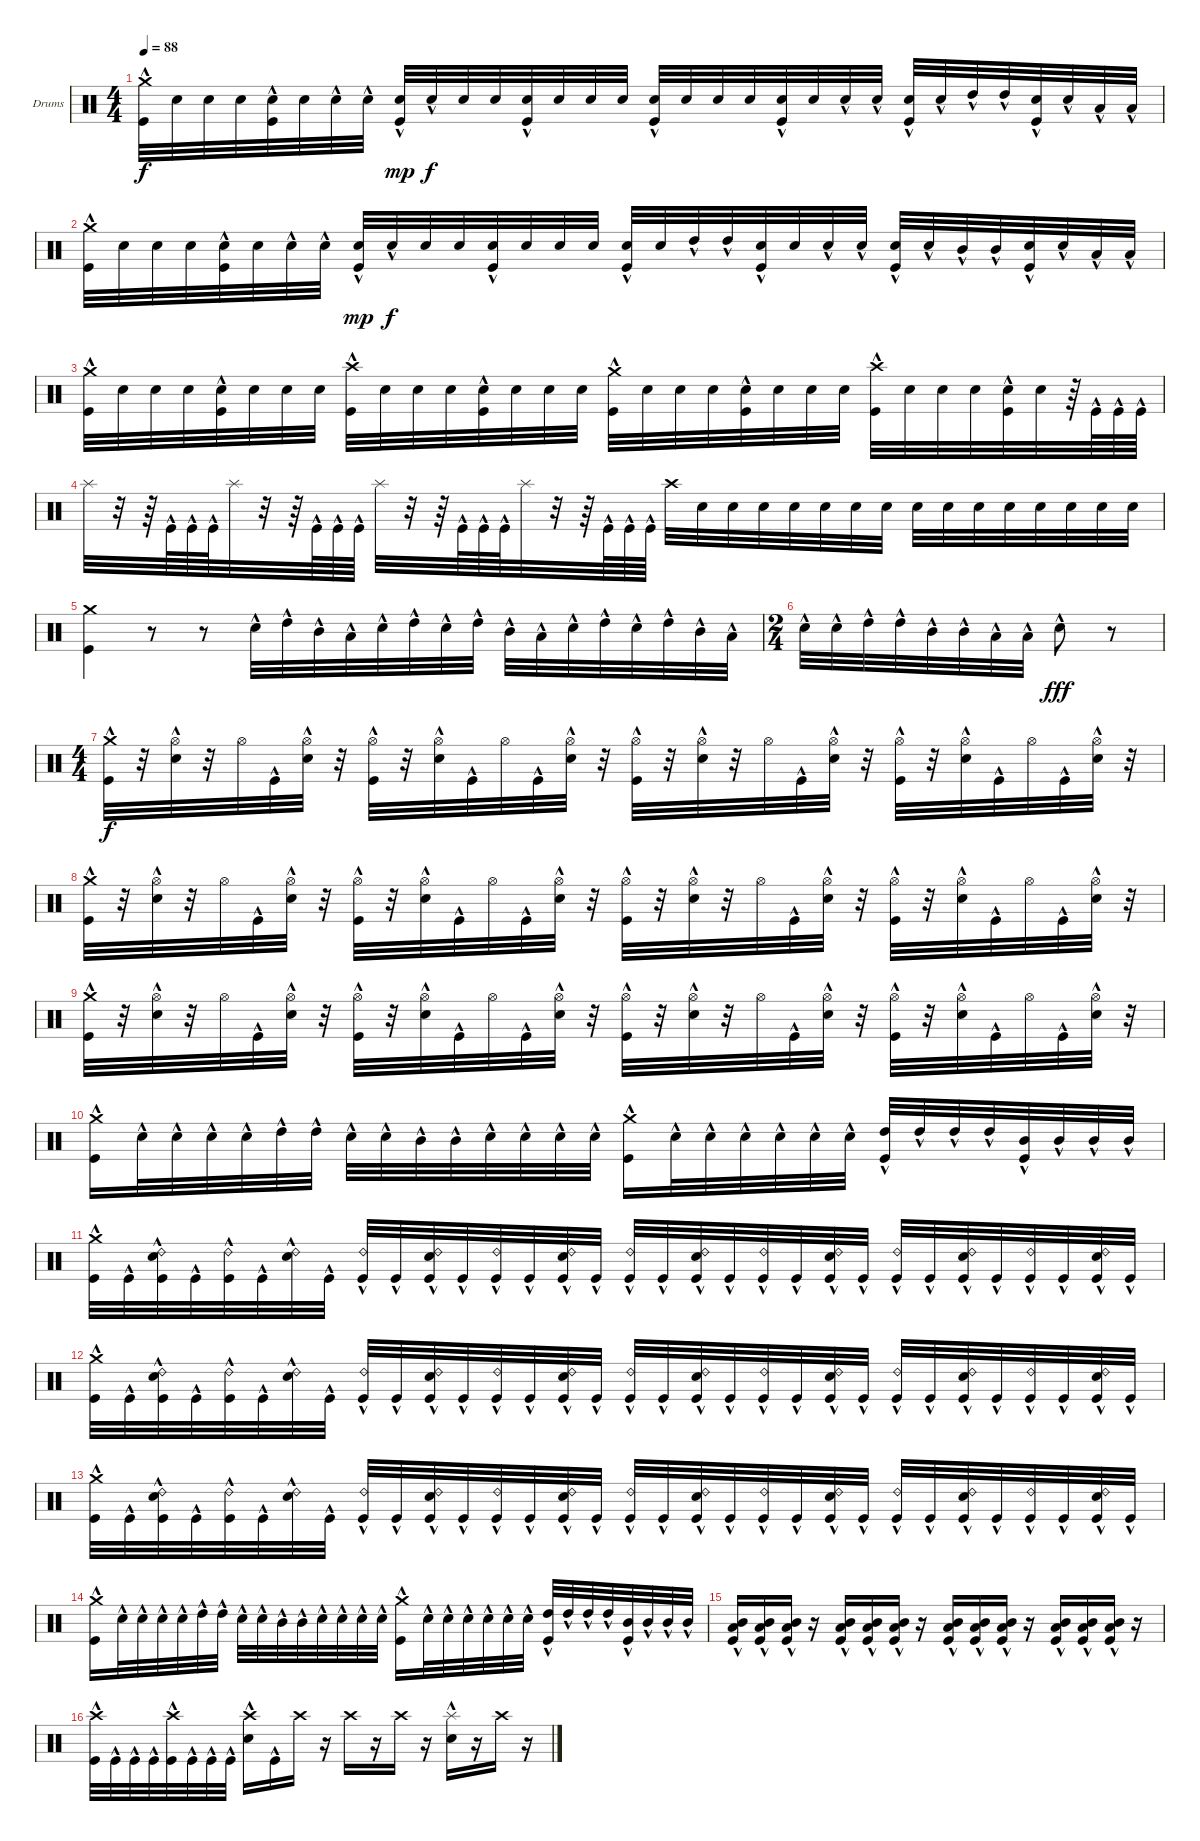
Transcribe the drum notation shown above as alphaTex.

\bracketExtendMode groupsimilarinstruments
\firstSystemTrackNameOrientation horizontal
\otherSystemsTrackNameOrientation horizontal
\track ("Drumkit" "Drums") {instrument percussion}
\staff {score}
\articulation defaults
\ts (4 4)
\tempo 88
\clef neutral
\ks c
("Kick (hit)"{hac} "Crash medium (hit)").32{dy f} "Snare (hit) 2".32 "Snare (hit) 2".32 "Snare (hit) 2".32 ("Kick (hit)"{hac} "Snare (hit) 2").32 "Snare (hit) 2".32 "Snare (hit) 2"{hac}.32 "Snare (hit) 2"{hac}.32 ("Kick (hit)"{hac} "Snare (hit) 2"{hac}).32{dy mp} "Snare (hit) 2"{hac}.32{dy f} "Snare (hit) 2".32 "Snare (hit) 2".32 ("Kick (hit)"{hac} "Snare (hit) 2").32 "Snare (hit) 2".32 "Snare (hit) 2".32 "Snare (hit) 2".32 ("Kick (hit)"{hac} "Snare (hit) 2").32 "Snare (hit) 2".32 "Snare (hit) 2".32 "Snare (hit) 2".32 ("Kick (hit)"{hac} "Snare (hit) 2").32 "Snare (hit) 2".32 "Snare (hit) 2"{hac}.32 "Snare (hit) 2"{hac}.32 ("Kick (hit)"{hac} "Snare (hit) 2"{hac}).32 "Snare (hit) 2"{hac}.32 "High Tom (hit)"{hac}.32 "High Tom (hit)"{hac}.32 ("Kick (hit)"{hac} "Snare (hit) 2"{hac}).32 "Snare (hit) 2"{hac}.32 "Low Tom (hit)"{hac}.32 "Low Tom (hit)"{hac}.32 |
("Kick (hit)"{hac} "Crash medium (hit)").32 "Snare (hit) 2".32 "Snare (hit) 2".32 "Snare (hit) 2".32 ("Kick (hit)"{hac} "Snare (hit) 2").32 "Snare (hit) 2".32 "Snare (hit) 2"{hac}.32 "Snare (hit) 2"{hac}.32 ("Kick (hit)"{hac} "Snare (hit) 2"{hac}).32{dy mp} "Snare (hit) 2"{hac}.32{dy f} "Snare (hit) 2".32 "Snare (hit) 2".32 ("Kick (hit)"{hac} "Snare (hit) 2").32 "Snare (hit) 2".32 "Snare (hit) 2".32 "Snare (hit) 2".32 ("Kick (hit)"{hac} "Snare (hit) 2").32 "Snare (hit) 2".32 "High Tom (hit)"{hac}.32 "High Tom (hit)"{hac}.32 ("Kick (hit)"{hac} "Snare (hit) 2").32 "Snare (hit) 2".32 "Snare (hit) 2"{hac}.32 "Snare (hit) 2"{hac}.32 ("Kick (hit)"{hac} "Snare (hit) 2"{hac}).32 "Snare (hit) 2"{hac}.32 "Mid Tom (hit)"{hac}.32 "Mid Tom (hit)"{hac}.32 ("Kick (hit)"{hac} "Snare (hit) 2"{hac}).32 "Snare (hit) 2"{hac}.32 "Low Tom (hit)"{hac}.32 "Low Tom (hit)"{hac}.32 |
("Kick (hit)"{hac} "Crash medium (hit)").32 "Snare (hit) 2".32 "Snare (hit) 2".32 "Snare (hit) 2".32 ("Kick (hit)"{hac} "Snare (hit) 2").32 "Snare (hit) 2".32 "Snare (hit) 2".32 "Snare (hit) 2".32 ("Kick (hit)"{hac} "Crash high (hit)").32 "Snare (hit) 2".32 "Snare (hit) 2".32 "Snare (hit) 2".32 ("Kick (hit)"{hac} "Snare (hit) 2").32 "Snare (hit) 2".32 "Snare (hit) 2".32 "Snare (hit) 2".32 ("Kick (hit)"{hac} "Crash medium (hit)").32 "Snare (hit) 2".32 "Snare (hit) 2".32 "Snare (hit) 2".32 ("Kick (hit)"{hac} "Snare (hit) 2").32 "Snare (hit) 2".32 "Snare (hit) 2".32 "Snare (hit) 2".32 ("Kick (hit)"{hac} "Crash high (hit)").32 "Snare (hit) 2".32 "Snare (hit) 2".32 "Snare (hit) 2".32 ("Kick (hit)"{hac} "Snare (hit) 2").32 "Snare (hit) 2".32 r.64 "Kick (hit)"{hac}.64 "Kick (hit)"{hac}.64 "Kick (hit)"{hac}.64 |
"Splash (hit)".32 r.32 r.64 "Kick (hit)"{hac}.64 "Kick (hit)"{hac}.64 "Kick (hit)"{hac}.64 "Splash (hit)".32 r.32 r.64 "Kick (hit)"{hac}.64 "Kick (hit)"{hac}.64 "Kick (hit)"{hac}.64 "Splash (hit)".32 r.32 r.64 "Kick (hit)"{hac}.64 "Kick (hit)"{hac}.64 "Kick (hit)"{hac}.64 "Splash (hit)".32 r.32 r.64 "Kick (hit)"{hac}.64 "Kick (hit)"{hac}.64 "Kick (hit)"{hac}.64 "Crash high (hit)".32 "Snare (hit) 2".32 "Snare (hit) 2".32 "Snare (hit) 2".32 "Snare (hit) 2".32 "Snare (hit) 2".32 "Snare (hit) 2".32 "Snare (hit) 2".32 "Snare (hit) 2".32 "Snare (hit) 2".32 "Snare (hit) 2".32 "Snare (hit) 2".32 "Snare (hit) 2".32 "Snare (hit) 2".32 "Snare (hit) 2".32 "Snare (hit) 2".32 |
("Kick (hit)" "Crash medium (hit)").4 r.8 r.8 "Snare (hit) 2"{hac}.32 "High Tom (hit)"{hac}.32 "Mid Tom (hit)"{hac}.32 "Low Tom (hit)"{hac}.32 "Snare (hit) 2"{hac}.32 "High Tom (hit)"{hac}.32 "Snare (hit) 2"{hac}.32 "High Tom (hit)"{hac}.32 "Mid Tom (hit)"{hac}.32 "Low Tom (hit)"{hac}.32 "Snare (hit) 2"{hac}.32 "High Tom (hit)"{hac}.32 "Snare (hit) 2"{hac}.32 "High Tom (hit)"{hac}.32 "Mid Tom (hit)"{hac}.32 "Low Tom (hit)"{hac}.32 |
\ts (2 4)
\beaming (8 2 2)
"Snare (hit) 2"{hac}.32 "Snare (hit) 2"{hac}.32 "High Tom (hit)"{hac}.32 "High Tom (hit)"{hac}.32 "Mid Tom (hit)"{hac}.32 "Mid Tom (hit)"{hac}.32 "Low Tom (hit)"{hac}.32 "Low Tom (hit)"{hac}.32 "Snare (hit) 2"{hac}.8{dy fff} r.8 |
\ts (4 4)
\beaming (8 2 2 2 2)
("Kick (hit)"{hac} "Crash medium (hit)").32{dy f} r.32 ("Snare (hit) 2"{hac} "Hi-Hat (open)").32 r.32 "Hi-Hat (open)".32 "Kick (hit)"{hac}.32 ("Snare (hit) 2"{hac} "Hi-Hat (open)").32 r.32 ("Kick (hit)"{hac} "Hi-Hat (open)").32 r.32 ("Snare (hit) 2"{hac} "Hi-Hat (open)").32 "Kick (hit)"{hac}.32 "Hi-Hat (open)".32 "Kick (hit)"{hac}.32 ("Snare (hit) 2"{hac} "Hi-Hat (open)").32 r.32 ("Kick (hit)"{hac} "Hi-Hat (open)").32 r.32 ("Snare (hit) 2"{hac} "Hi-Hat (open)").32 r.32 "Hi-Hat (open)".32 "Kick (hit)"{hac}.32 ("Snare (hit) 2"{hac} "Hi-Hat (open)").32 r.32 ("Kick (hit)"{hac} "Hi-Hat (open)").32 r.32 ("Snare (hit) 2"{hac} "Hi-Hat (open)").32 "Kick (hit)"{hac}.32 "Hi-Hat (open)".32 "Kick (hit)"{hac}.32 ("Snare (hit) 2"{hac} "Hi-Hat (open)").32 r.32 |
("Kick (hit)"{hac} "Crash medium (hit)").32 r.32 ("Snare (hit) 2"{hac} "Hi-Hat (open)").32 r.32 "Hi-Hat (open)".32 "Kick (hit)"{hac}.32 ("Snare (hit) 2"{hac} "Hi-Hat (open)").32 r.32 ("Kick (hit)"{hac} "Hi-Hat (open)").32 r.32 ("Snare (hit) 2"{hac} "Hi-Hat (open)").32 "Kick (hit)"{hac}.32 "Hi-Hat (open)".32 "Kick (hit)"{hac}.32 ("Snare (hit) 2"{hac} "Hi-Hat (open)").32 r.32 ("Kick (hit)"{hac} "Hi-Hat (open)").32 r.32 ("Snare (hit) 2"{hac} "Hi-Hat (open)").32 r.32 "Hi-Hat (open)".32 "Kick (hit)"{hac}.32 ("Snare (hit) 2"{hac} "Hi-Hat (open)").32 r.32 ("Kick (hit)"{hac} "Hi-Hat (open)").32 r.32 ("Snare (hit) 2"{hac} "Hi-Hat (open)").32 "Kick (hit)"{hac}.32 "Hi-Hat (open)".32 "Kick (hit)"{hac}.32 ("Snare (hit) 2"{hac} "Hi-Hat (open)").32 r.32 |
("Kick (hit)"{hac} "Crash medium (hit)").32 r.32 ("Snare (hit) 2"{hac} "Hi-Hat (open)").32 r.32 "Hi-Hat (open)".32 "Kick (hit)"{hac}.32 ("Snare (hit) 2"{hac} "Hi-Hat (open)").32 r.32 ("Kick (hit)"{hac} "Hi-Hat (open)").32 r.32 ("Snare (hit) 2"{hac} "Hi-Hat (open)").32 "Kick (hit)"{hac}.32 "Hi-Hat (open)".32 "Kick (hit)"{hac}.32 ("Snare (hit) 2"{hac} "Hi-Hat (open)").32 r.32 ("Kick (hit)"{hac} "Hi-Hat (open)").32 r.32 ("Snare (hit) 2"{hac} "Hi-Hat (open)").32 r.32 "Hi-Hat (open)".32 "Kick (hit)"{hac}.32 ("Snare (hit) 2"{hac} "Hi-Hat (open)").32 r.32 ("Kick (hit)"{hac} "Hi-Hat (open)").32 r.32 ("Snare (hit) 2"{hac} "Hi-Hat (open)").32 "Kick (hit)"{hac}.32 "Hi-Hat (open)".32 "Kick (hit)"{hac}.32 ("Snare (hit) 2"{hac} "Hi-Hat (open)").32 r.32 |
("Kick (hit)"{hac} "Crash medium (hit)").16 "Snare (hit) 2"{hac}.32 "Snare (hit) 2"{hac}.32 "Snare (hit) 2"{hac}.32 "Snare (hit) 2"{hac}.32 "High Tom (hit)"{hac}.32 "High Tom (hit)"{hac}.32 "Snare (hit) 2"{hac}.32 "Snare (hit) 2"{hac}.32 "Mid Tom (hit)"{hac}.32 "Mid Tom (hit)"{hac}.32 "Snare (hit) 2"{hac}.32 "Snare (hit) 2"{hac}.32 "Snare (hit) 2"{hac}.32 "Snare (hit) 2"{hac}.32 ("Kick (hit)"{hac} "Crash medium (hit)").16 "Snare (hit) 2"{hac}.32 "Snare (hit) 2"{hac}.32 "Snare (hit) 2"{hac}.32 "Snare (hit) 2"{hac}.32 "Snare (hit) 2"{hac}.32 "Snare (hit) 2"{hac}.32 ("Kick (hit)"{hac} "High Tom (hit)"{hac}).32 "High Tom (hit)"{hac}.32 "High Tom (hit)"{hac}.32 "High Tom (hit)"{hac}.32 ("Kick (hit)"{hac} "Mid Tom (hit)"{hac}).32 "Mid Tom (hit)"{hac}.32 "Mid Tom (hit)"{hac}.32 "Mid Tom (hit)"{hac}.32 |
("Kick (hit)"{hac} "Crash medium (hit)").32 "Kick (hit)"{hac}.32 ("Kick (hit)"{hac} "Snare (hit) 2"{hac} "Ride (bell) 2").32 "Kick (hit)"{hac}.32 ("Kick (hit)"{hac} "Ride (bell) 2").32 "Kick (hit)"{hac}.32 ("Snare (hit) 2"{hac} "Ride (bell) 2").32 "Kick (hit)"{hac}.32 ("Kick (hit)"{hac} "Ride (bell) 2").32 "Kick (hit)"{hac}.32 ("Kick (hit)"{hac} "Snare (hit) 2"{hac} "Ride (bell) 2").32 "Kick (hit)"{hac}.32 ("Kick (hit)"{hac} "Ride (bell) 2").32 "Kick (hit)"{hac}.32 ("Kick (hit)"{hac} "Snare (hit) 2"{hac} "Ride (bell) 2").32 "Kick (hit)"{hac}.32 ("Kick (hit)"{hac} "Ride (bell) 2").32 "Kick (hit)"{hac}.32 ("Kick (hit)"{hac} "Snare (hit) 2"{hac} "Ride (bell) 2").32 "Kick (hit)"{hac}.32 ("Kick (hit)"{hac} "Ride (bell) 2").32 "Kick (hit)"{hac}.32 ("Kick (hit)"{hac} "Snare (hit) 2"{hac} "Ride (bell) 2").32 "Kick (hit)"{hac}.32 ("Kick (hit)"{hac} "Ride (bell) 2").32 "Kick (hit)"{hac}.32 ("Kick (hit)"{hac} "Snare (hit) 2"{hac} "Ride (bell) 2").32 "Kick (hit)"{hac}.32 ("Kick (hit)"{hac} "Ride (bell) 2").32 "Kick (hit)"{hac}.32 ("Kick (hit)"{hac} "Snare (hit) 2"{hac} "Ride (bell) 2").32 "Kick (hit)"{hac}.32 |
("Kick (hit)"{hac} "Crash medium (hit)").32 "Kick (hit)"{hac}.32 ("Kick (hit)"{hac} "Snare (hit) 2"{hac} "Ride (bell) 2").32 "Kick (hit)"{hac}.32 ("Kick (hit)"{hac} "Ride (bell) 2").32 "Kick (hit)"{hac}.32 ("Snare (hit) 2"{hac} "Ride (bell) 2").32 "Kick (hit)"{hac}.32 ("Kick (hit)"{hac} "Ride (bell) 2").32 "Kick (hit)"{hac}.32 ("Kick (hit)"{hac} "Snare (hit) 2"{hac} "Ride (bell) 2").32 "Kick (hit)"{hac}.32 ("Kick (hit)"{hac} "Ride (bell) 2").32 "Kick (hit)"{hac}.32 ("Kick (hit)"{hac} "Snare (hit) 2"{hac} "Ride (bell) 2").32 "Kick (hit)"{hac}.32 ("Kick (hit)"{hac} "Ride (bell) 2").32 "Kick (hit)"{hac}.32 ("Kick (hit)"{hac} "Snare (hit) 2"{hac} "Ride (bell) 2").32 "Kick (hit)"{hac}.32 ("Kick (hit)"{hac} "Ride (bell) 2").32 "Kick (hit)"{hac}.32 ("Kick (hit)"{hac} "Snare (hit) 2"{hac} "Ride (bell) 2").32 "Kick (hit)"{hac}.32 ("Kick (hit)"{hac} "Ride (bell) 2").32 "Kick (hit)"{hac}.32 ("Kick (hit)"{hac} "Snare (hit) 2"{hac} "Ride (bell) 2").32 "Kick (hit)"{hac}.32 ("Kick (hit)"{hac} "Ride (bell) 2").32 "Kick (hit)"{hac}.32 ("Kick (hit)"{hac} "Snare (hit) 2"{hac} "Ride (bell) 2").32 "Kick (hit)"{hac}.32 |
("Kick (hit)"{hac} "Crash medium (hit)").32 "Kick (hit)"{hac}.32 ("Kick (hit)"{hac} "Snare (hit) 2"{hac} "Ride (bell) 2").32 "Kick (hit)"{hac}.32 ("Kick (hit)"{hac} "Ride (bell) 2").32 "Kick (hit)"{hac}.32 ("Snare (hit) 2"{hac} "Ride (bell) 2").32 "Kick (hit)"{hac}.32 ("Kick (hit)"{hac} "Ride (bell) 2").32 "Kick (hit)"{hac}.32 ("Kick (hit)"{hac} "Snare (hit) 2"{hac} "Ride (bell) 2").32 "Kick (hit)"{hac}.32 ("Kick (hit)"{hac} "Ride (bell) 2").32 "Kick (hit)"{hac}.32 ("Kick (hit)"{hac} "Snare (hit) 2"{hac} "Ride (bell) 2").32 "Kick (hit)"{hac}.32 ("Kick (hit)"{hac} "Ride (bell) 2").32 "Kick (hit)"{hac}.32 ("Kick (hit)"{hac} "Snare (hit) 2"{hac} "Ride (bell) 2").32 "Kick (hit)"{hac}.32 ("Kick (hit)"{hac} "Ride (bell) 2").32 "Kick (hit)"{hac}.32 ("Kick (hit)"{hac} "Snare (hit) 2"{hac} "Ride (bell) 2").32 "Kick (hit)"{hac}.32 ("Kick (hit)"{hac} "Ride (bell) 2").32 "Kick (hit)"{hac}.32 ("Kick (hit)"{hac} "Snare (hit) 2"{hac} "Ride (bell) 2").32 "Kick (hit)"{hac}.32 ("Kick (hit)"{hac} "Ride (bell) 2").32 "Kick (hit)"{hac}.32 ("Kick (hit)"{hac} "Snare (hit) 2"{hac} "Ride (bell) 2").32 "Kick (hit)"{hac}.32 |
("Kick (hit)"{hac} "Crash medium (hit)").16 "Snare (hit) 2"{hac}.32 "Snare (hit) 2"{hac}.32 "Snare (hit) 2"{hac}.32 "Snare (hit) 2"{hac}.32 "High Tom (hit)"{hac}.32 "High Tom (hit)"{hac}.32 "Snare (hit) 2"{hac}.32 "Snare (hit) 2"{hac}.32 "Mid Tom (hit)"{hac}.32 "Mid Tom (hit)"{hac}.32 "Snare (hit) 2"{hac}.32 "Snare (hit) 2"{hac}.32 "Snare (hit) 2"{hac}.32 "Snare (hit) 2"{hac}.32 ("Kick (hit)"{hac} "Crash medium (hit)").16 "Snare (hit) 2"{hac}.32 "Snare (hit) 2"{hac}.32 "Snare (hit) 2"{hac}.32 "Snare (hit) 2"{hac}.32 "Snare (hit) 2"{hac}.32 "Snare (hit) 2"{hac}.32 ("Kick (hit)"{hac} "High Tom (hit)"{hac}).32 "High Tom (hit)"{hac}.32 "High Tom (hit)"{hac}.32 "High Tom (hit)"{hac}.32 ("Kick (hit)"{hac} "Mid Tom (hit)"{hac}).32 "Mid Tom (hit)"{hac}.32 "Mid Tom (hit)"{hac}.32 "Mid Tom (hit)"{hac}.32 |
("Kick (hit)"{hac} "Low Tom (hit)"{hac} "Mid Tom (hit)"{hac}).16 ("Kick (hit)"{hac} "Low Tom (hit)"{hac} "Mid Tom (hit)"{hac}).16 ("Kick (hit)"{hac} "Low Tom (hit)"{hac} "Mid Tom (hit)"{hac}).16 r.16 ("Kick (hit)"{hac} "Low Tom (hit)"{hac} "Mid Tom (hit)"{hac}).16 ("Kick (hit)"{hac} "Low Tom (hit)"{hac} "Mid Tom (hit)"{hac}).16 ("Kick (hit)"{hac} "Low Tom (hit)"{hac} "Mid Tom (hit)"{hac}).16 r.16 ("Kick (hit)"{hac} "Low Tom (hit)"{hac} "Mid Tom (hit)"{hac}).16 ("Kick (hit)"{hac} "Low Tom (hit)"{hac} "Mid Tom (hit)"{hac}).16 ("Kick (hit)"{hac} "Low Tom (hit)"{hac} "Mid Tom (hit)"{hac}).16 r.16 ("Kick (hit)"{hac} "Low Tom (hit)"{hac} "Mid Tom (hit)"{hac}).16 ("Kick (hit)"{hac} "Low Tom (hit)"{hac} "Mid Tom (hit)"{hac}).16 ("Kick (hit)"{hac} "Low Tom (hit)"{hac} "Mid Tom (hit)"{hac}).16 r.16 |
("Kick (hit)"{hac} "Crash high (hit)").32 "Kick (hit)"{hac}.32 "Kick (hit)"{hac}.32 "Kick (hit)"{hac}.32 ("Kick (hit)"{hac} "Crash high (hit)").32 "Kick (hit)"{hac}.32 "Kick (hit)"{hac}.32 "Kick (hit)"{hac}.32 ("Snare (hit) 2"{hac} "Crash high (hit)").16 "Kick (hit)"{hac}.16 "Crash high (hit)".16 r.16 "Crash high (hit)".16 r.16 "Crash high (hit)".16 r.16 ("Snare (hit) 2"{hac} "Splash (hit)").16 r.16 "Crash high (hit)".16 r.16
